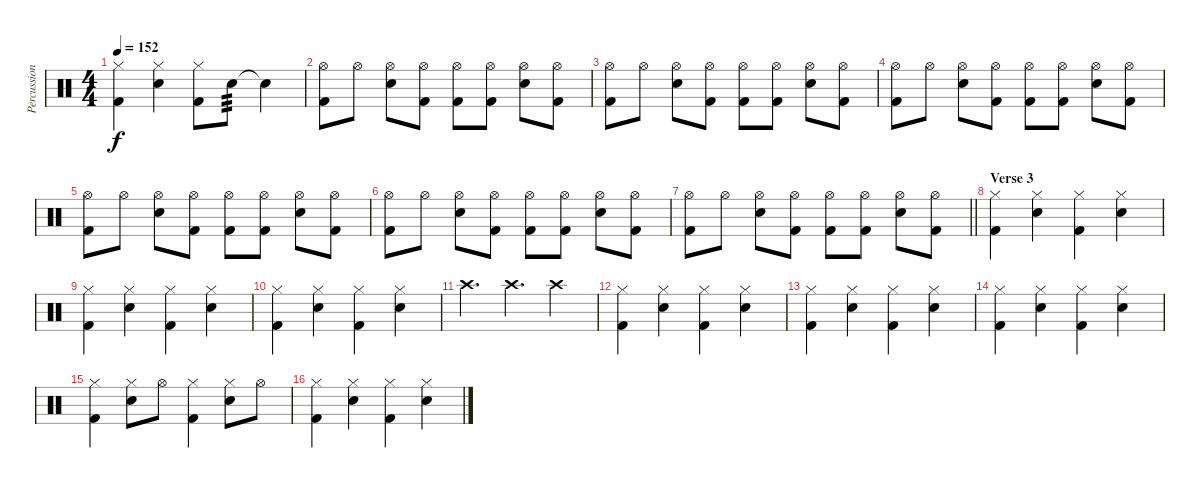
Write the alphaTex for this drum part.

\track ("Percussion" "Percussion") {instrument percussion}
\staff {score}
\articulation defaults
\ts (4 4)
\tempo 152
\clef neutral
\ks c
("Kick (hit) 2" "Hi-Hat (closed)").4{dy f} ("Snare (hit) 2" "Hi-Hat (closed)").4 ("Kick (hit) 2" "Hi-Hat (closed)").8 "Snare (hit) 2".8{tp 3} "Snare (hit)"{t}.4 |
("Kick (hit) 2" "Hi-Hat (open)").8 "Hi-Hat (open)".8 ("Snare (hit) 2" "Hi-Hat (open)").8 ("Kick (hit) 2" "Hi-Hat (open)").8 ("Kick (hit) 2" "Hi-Hat (open)").8 ("Kick (hit) 2" "Hi-Hat (open)").8 ("Snare (hit) 2" "Hi-Hat (open)").8 ("Kick (hit) 2" "Hi-Hat (open)").8 |
("Kick (hit) 2" "Hi-Hat (open)").8 "Hi-Hat (open)".8 ("Snare (hit) 2" "Hi-Hat (open)").8 ("Kick (hit) 2" "Hi-Hat (open)").8 ("Kick (hit) 2" "Hi-Hat (open)").8 ("Kick (hit) 2" "Hi-Hat (open)").8 ("Snare (hit) 2" "Hi-Hat (open)").8 ("Kick (hit) 2" "Hi-Hat (open)").8 |
("Kick (hit) 2" "Hi-Hat (open)").8 "Hi-Hat (open)".8 ("Snare (hit) 2" "Hi-Hat (open)").8 ("Kick (hit) 2" "Hi-Hat (open)").8 ("Kick (hit) 2" "Hi-Hat (open)").8 ("Kick (hit) 2" "Hi-Hat (open)").8 ("Snare (hit) 2" "Hi-Hat (open)").8 ("Kick (hit) 2" "Hi-Hat (open)").8 |
("Kick (hit) 2" "Hi-Hat (open)").8 "Hi-Hat (open)".8 ("Snare (hit) 2" "Hi-Hat (open)").8 ("Kick (hit) 2" "Hi-Hat (open)").8 ("Kick (hit) 2" "Hi-Hat (open)").8 ("Kick (hit) 2" "Hi-Hat (open)").8 ("Snare (hit) 2" "Hi-Hat (open)").8 ("Kick (hit) 2" "Hi-Hat (open)").8 |
("Kick (hit) 2" "Hi-Hat (open)").8 "Hi-Hat (open)".8 ("Snare (hit) 2" "Hi-Hat (open)").8 ("Kick (hit) 2" "Hi-Hat (open)").8 ("Kick (hit) 2" "Hi-Hat (open)").8 ("Kick (hit) 2" "Hi-Hat (open)").8 ("Snare (hit) 2" "Hi-Hat (open)").8 ("Kick (hit) 2" "Hi-Hat (open)").8 |
\barLineRight lightlight
("Kick (hit) 2" "Hi-Hat (open)").8 "Hi-Hat (open)".8 ("Snare (hit) 2" "Hi-Hat (open)").8 ("Kick (hit) 2" "Hi-Hat (open)").8 ("Kick (hit) 2" "Hi-Hat (open)").8 ("Kick (hit) 2" "Hi-Hat (open)").8 ("Snare (hit) 2" "Hi-Hat (open)").8 ("Kick (hit) 2" "Hi-Hat (open)").8 |
\section ("" "Verse 3")
("Kick (hit) 2" "Hi-Hat (closed)").4 ("Snare (hit) 2" "Hi-Hat (closed)").4 ("Kick (hit) 2" "Hi-Hat (closed)").4 ("Snare (hit) 2" "Hi-Hat (closed)").4 |
("Kick (hit) 2" "Hi-Hat (closed)").4 ("Snare (hit) 2" "Hi-Hat (closed)").4 ("Kick (hit) 2" "Hi-Hat (closed)").4 ("Snare (hit) 2" "Hi-Hat (closed)").4 |
("Kick (hit) 2" "Hi-Hat (closed)").4 ("Snare (hit) 2" "Hi-Hat (closed)").4 ("Kick (hit) 2" "Hi-Hat (closed)").4 ("Snare (hit) 2" "Hi-Hat (closed)").4 |
"Crash high (hit)".4{d} "Crash high (hit)".4{d} "Crash high (hit)".4 |
("Kick (hit) 2" "Hi-Hat (closed)").4 ("Snare (hit) 2" "Hi-Hat (closed)").4 ("Kick (hit) 2" "Hi-Hat (closed)").4 ("Snare (hit) 2" "Hi-Hat (closed)").4 |
("Kick (hit) 2" "Hi-Hat (closed)").4 ("Snare (hit) 2" "Hi-Hat (closed)").4 ("Kick (hit) 2" "Hi-Hat (closed)").4 ("Snare (hit) 2" "Hi-Hat (closed)").4 |
("Kick (hit) 2" "Hi-Hat (closed)").4 ("Snare (hit) 2" "Hi-Hat (closed)").4 ("Kick (hit) 2" "Hi-Hat (closed)").4 ("Snare (hit) 2" "Hi-Hat (closed)").4 |
("Kick (hit) 2" "Hi-Hat (closed)").4 ("Snare (hit) 2" "Hi-Hat (closed)").8 "Hi-Hat (open)".8 ("Kick (hit) 2" "Hi-Hat (closed)").4 ("Snare (hit) 2" "Hi-Hat (closed)").8 "Hi-Hat (open)".8 |
("Kick (hit) 2" "Hi-Hat (closed)").4 ("Snare (hit) 2" "Hi-Hat (closed)").4 ("Kick (hit) 2" "Hi-Hat (closed)").4 ("Snare (hit) 2" "Hi-Hat (closed)").4
